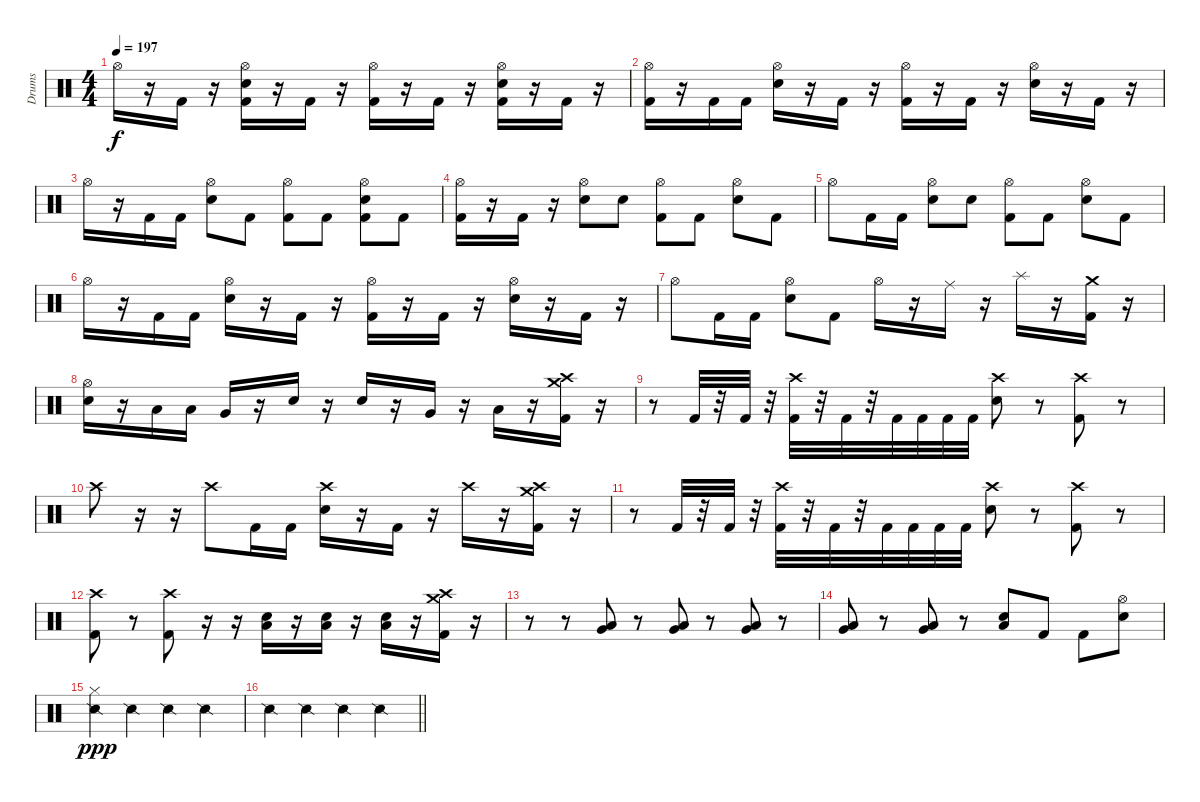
\track ("Drums" "Drums") {instrument percussion}
\staff {score}
\articulation defaults
\ts (4 4)
\tempo 197
\clef neutral
\ks c "Hi-Hat (open)".16{dy f}
r.16 "Kick (hit) 2".16 r.16 ("Hi-Hat (open)" "Electric Snare (hit)" "Kick (hit) 2").16 r.16 "Kick (hit) 2".16 r.16 ("Hi-Hat (open)" "Kick (hit) 2").16 r.16 "Kick (hit) 2".16 r.16 ("Hi-Hat (open)" "Electric Snare (hit)" "Kick (hit) 2").16 r.16 "Kick (hit) 2".16 r.16 |
("Hi-Hat (open)" "Kick (hit) 2").16 r.16 "Kick (hit) 2".16 "Kick (hit) 2".16 ("Hi-Hat (open)" "Electric Snare (hit)").16 r.16 "Kick (hit) 2".16 r.16 ("Hi-Hat (open)" "Kick (hit) 2").16 r.16 "Kick (hit) 2".16 r.16 ("Hi-Hat (open)" "Electric Snare (hit)").16 r.16 "Kick (hit) 2".16 r.16 |
"Hi-Hat (open)".16 r.16 "Kick (hit) 2".16 "Kick (hit) 2".16 ("Hi-Hat (open)" "Electric Snare (hit)").8 "Kick (hit) 2".8 ("Hi-Hat (open)" "Kick (hit) 2").8 "Kick (hit) 2".8 ("Hi-Hat (open)" "Electric Snare (hit)" "Kick (hit) 2").8 "Kick (hit) 2".8 |
("Hi-Hat (open)" "Kick (hit) 2").16 r.16 "Kick (hit) 2".16 r.16 ("Hi-Hat (open)" "Electric Snare (hit)").8 "Electric Snare (hit)".8 ("Hi-Hat (open)" "Kick (hit) 2").8 "Kick (hit) 2".8 ("Hi-Hat (open)" "Electric Snare (hit)").8 "Kick (hit) 2".8 |
"Hi-Hat (open)".8 "Kick (hit) 2".16 "Kick (hit) 2".16 ("Hi-Hat (open)" "Electric Snare (hit)").8 "Electric Snare (hit)".8 ("Hi-Hat (open)" "Kick (hit) 2").8 "Kick (hit) 2".8 ("Hi-Hat (open)" "Electric Snare (hit)").8 "Kick (hit) 2".8 |
"Hi-Hat (open)".16 r.16 "Kick (hit) 2".16 "Kick (hit) 2".16 ("Hi-Hat (open)" "Electric Snare (hit)").16 r.16 "Kick (hit) 2".16 r.16 ("Hi-Hat (open)" "Kick (hit) 2").16 r.16 "Kick (hit) 2".16 r.16 ("Hi-Hat (open)" "Electric Snare (hit)").16 r.16 "Kick (hit) 2".16 r.16 |
"Hi-Hat (open)".8 "Kick (hit) 2".16 "Kick (hit) 2".16 ("Hi-Hat (open)" "Electric Snare (hit)").8 "Kick (hit) 2".8 "Hi-Hat (open)".16 r.16 "Ride (middle)".16 r.16 "Splash (hit)".16 r.16 ("Crash medium (hit)" "Kick (hit) 2").16 r.16 |
("Hi-Hat (open)" "Electric Snare (hit)").16 r.16 "Low Tom (hit)".16 "Low Tom (hit)".16 "Very Low Tom (hit)".16 r.16 "Electric Snare (hit)".16 r.16 "Electric Snare (hit)".16 r.16 "Very Low Tom (hit)".16 r.16 "Low Floor Tom (hit)".16 r.16 ("Crash high (hit)" "Crash medium (hit)" "Kick (hit) 2").16 r.16 |
r.8 "Kick (hit) 2".32 r.32 "Kick (hit) 2".32 r.32 ("Crash high (hit)" "Kick (hit) 2").32 r.32 "Kick (hit) 2".32 r.32 "Kick (hit) 2".32 "Kick (hit) 2".32 "Kick (hit) 2".32 "Kick (hit) 2".32 ("Crash high (hit)" "Electric Snare (hit)").8 r.8 ("Crash high (hit)" "Kick (hit) 2").8 r.8 |
"Crash high (hit)".8 r.16 r.16 "Crash high (hit)".8 "Kick (hit) 2".16 "Kick (hit) 2".16 ("Crash high (hit)" "Electric Snare (hit)").16 r.16 "Kick (hit) 2".16 r.16 "Crash high (hit)".16 r.16 ("Crash high (hit)" "Crash medium (hit)" "Kick (hit) 2").16 r.16 |
r.8 "Kick (hit) 2".32 r.32 "Kick (hit) 2".32 r.32 ("Crash high (hit)" "Kick (hit) 2").32 r.32 "Kick (hit) 2".32 r.32 "Kick (hit) 2".32 "Kick (hit) 2".32 "Kick (hit) 2".32 "Kick (hit) 2".32 ("Crash high (hit)" "Electric Snare (hit)").8 r.8 ("Crash high (hit)" "Kick (hit) 2").8 r.8 |
("Crash high (hit)" "Kick (hit) 2").8 r.8 ("Crash high (hit)" "Kick (hit) 2").8 r.16 r.16 ("Low Floor Tom (hit)" "Electric Snare (hit)").16 r.16 ("Low Floor Tom (hit)" "Electric Snare (hit)").16 r.16 ("Low Floor Tom (hit)" "Electric Snare (hit)").16 r.16 ("Crash high (hit)" "Crash medium (hit)" "Kick (hit) 2").16 r.16 |
r.8 r.8 ("Low Floor Tom (hit)" "Very Low Tom (hit)").8 r.8 ("Low Floor Tom (hit)" "Very Low Tom (hit)").8 r.8 ("Low Floor Tom (hit)" "Very Low Tom (hit)").8 r.8 |
("Low Floor Tom (hit)" "Very Low Tom (hit)").8 r.8 ("Low Floor Tom (hit)" "Very Low Tom (hit)").8 r.8 ("Low Floor Tom (hit)" "Electric Snare (hit)").8 "Kick (hit) 2".8 "Kick (hit) 2".8 ("Hi-Hat (open)" "Electric Snare (hit)").8 |
("Hi-Hat (closed)" "Snare (side stick) 2").4{dy ppp} "Snare (side stick) 2".4 "Snare (side stick) 2".4 "Snare (side stick) 2".4 |
\barLineRight lightlight "Snare (side stick) 2".4 "Snare (side stick) 2".4 "Snare (side stick) 2".4 "Snare (side stick) 2".4
